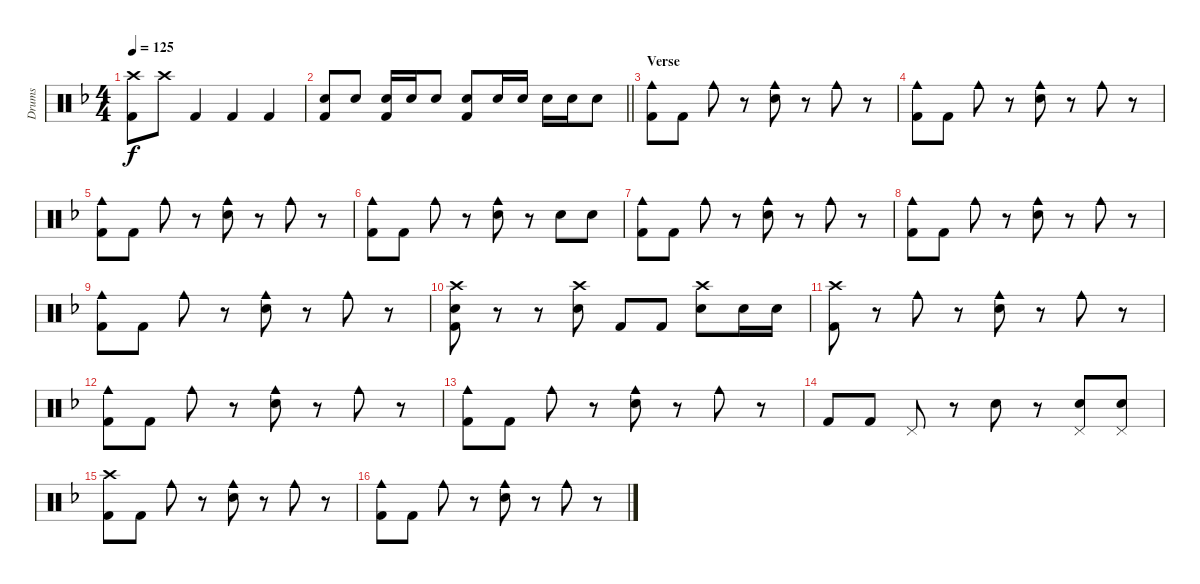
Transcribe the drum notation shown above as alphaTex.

\track ("Drums" "Drums") {instrument percussion}
\staff {score}
\articulation defaults
\ts (4 4)
\tempo 125
\clef neutral
\ks f
("Crash high (hit)" "Kick (hit) 2").8{dy f} "Crash high (hit)".8 "Kick (hit) 2".4 "Kick (hit) 2".4 "Kick (hit) 2".4 |
\barLineRight lightlight
("Electric Snare (hit)" "Kick (hit) 2").8 "Electric Snare (hit)".8 ("Electric Snare (hit)" "Kick (hit) 2").16 "Electric Snare (hit)".16 "Electric Snare (hit)".8 ("Electric Snare (hit)" "Kick (hit) 2").8 "Electric Snare (hit)".16 "Electric Snare (hit)".16 "Electric Snare (hit)".16 "Electric Snare (hit)".16 "Electric Snare (hit)".8 |
\section ("" "Verse")
("Cowbell medium (hit)" "Kick (hit) 2").8 "Kick (hit) 2".8 "Cowbell medium (hit)".8 r.8 ("Cowbell medium (hit)" "Electric Snare (hit)").8 r.8 "Cowbell medium (hit)".8 r.8 |
("Cowbell medium (hit)" "Kick (hit) 2").8 "Kick (hit) 2".8 "Cowbell medium (hit)".8 r.8 ("Cowbell medium (hit)" "Electric Snare (hit)").8 r.8 "Cowbell medium (hit)".8 r.8 |
("Cowbell medium (hit)" "Kick (hit) 2").8 "Kick (hit) 2".8 "Cowbell medium (hit)".8 r.8 ("Cowbell medium (hit)" "Electric Snare (hit)").8 r.8 "Cowbell medium (hit)".8 r.8 |
("Cowbell medium (hit)" "Kick (hit) 2").8 "Kick (hit) 2".8 "Cowbell medium (hit)".8 r.8 ("Cowbell medium (hit)" "Electric Snare (hit)").8 r.8 "Electric Snare (hit)".8 "Electric Snare (hit)".8 |
("Cowbell medium (hit)" "Kick (hit) 2").8 "Kick (hit) 2".8 "Cowbell medium (hit)".8 r.8 ("Cowbell medium (hit)" "Electric Snare (hit)").8 r.8 "Cowbell medium (hit)".8 r.8 |
("Cowbell medium (hit)" "Kick (hit) 2").8 "Kick (hit) 2".8 "Cowbell medium (hit)".8 r.8 ("Cowbell medium (hit)" "Electric Snare (hit)").8 r.8 "Cowbell medium (hit)".8 r.8 |
("Cowbell medium (hit)" "Kick (hit) 2").8 "Kick (hit) 2".8 "Cowbell medium (hit)".8 r.8 ("Cowbell medium (hit)" "Electric Snare (hit)").8 r.8 "Cowbell medium (hit)".8 r.8 |
("Crash high (hit)" "Electric Snare (hit)" "Kick (hit) 2").8 r.8 r.8 ("Crash high (hit)" "Electric Snare (hit)").8 "Kick (hit) 2".8 "Kick (hit) 2".8 ("Crash high (hit)" "Electric Snare (hit)").8 "Electric Snare (hit)".16 "Electric Snare (hit)".16 |
("Crash high (hit)" "Kick (hit) 2").8 r.8 "Cowbell medium (hit)".8 r.8 ("Cowbell medium (hit)" "Electric Snare (hit)").8 r.8 "Cowbell medium (hit)".8 r.8 |
("Cowbell medium (hit)" "Kick (hit) 2").8 "Kick (hit) 2".8 "Cowbell medium (hit)".8 r.8 ("Cowbell medium (hit)" "Electric Snare (hit)").8 r.8 "Cowbell medium (hit)".8 r.8 |
("Cowbell medium (hit)" "Kick (hit) 2").8 "Kick (hit) 2".8 "Cowbell medium (hit)".8 r.8 ("Cowbell medium (hit)" "Electric Snare (hit)").8 r.8 "Cowbell medium (hit)".8 r.8 |
"Kick (hit) 2".8 "Kick (hit) 2".8 "Pedal Hi-Hat (hit)".8 r.8 "Electric Snare (hit)".8 r.8 ("Pedal Hi-Hat (hit)" "Electric Snare (hit)").8 ("Pedal Hi-Hat (hit)" "Electric Snare (hit)").8 |
("Crash high (hit)" "Kick (hit) 2").8 "Kick (hit) 2".8 "Cowbell medium (hit)".8 r.8 ("Cowbell medium (hit)" "Electric Snare (hit)").8 r.8 "Cowbell medium (hit)".8 r.8 |
("Cowbell medium (hit)" "Kick (hit) 2").8 "Kick (hit) 2".8 "Cowbell medium (hit)".8 r.8 ("Cowbell medium (hit)" "Electric Snare (hit)").8 r.8 "Cowbell medium (hit)".8 r.8
